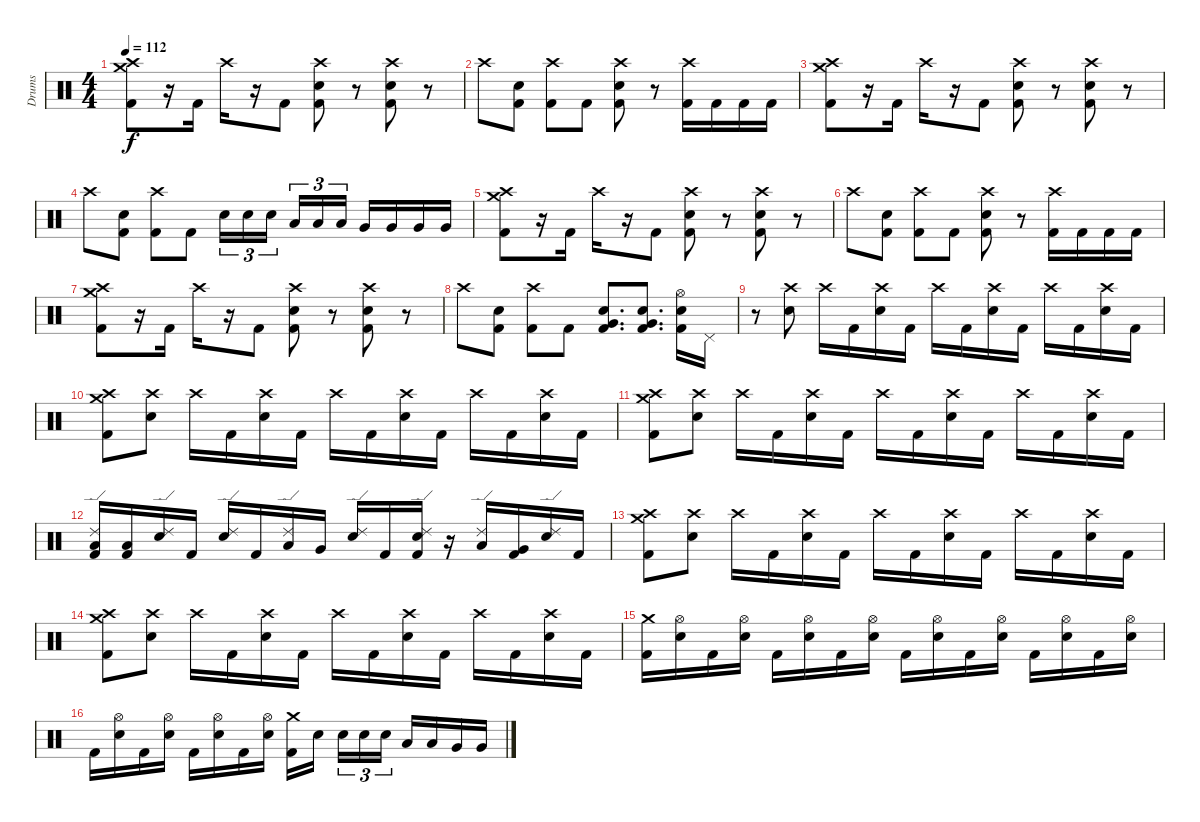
\track ("Drums " "Drums ") {instrument percussion}
\staff {score}
\articulation defaults
\ts (4 4)
\tempo 112
\clef neutral
\ks c
("Crash high (hit)" "Crash medium (hit)" "Kick (hit) 2").8{dy f} r.16 "Kick (hit) 2".16 "Crash high (hit)".16 r.16 "Kick (hit) 2".8 ("Crash high (hit)" "Electric Snare (hit)" "Kick (hit) 2").8 r.8 ("Crash high (hit)" "Electric Snare (hit)" "Kick (hit) 2").8 r.8 |
"Crash high (hit)".8 ("Electric Snare (hit)" "Kick (hit) 2").8 ("Crash high (hit)" "Kick (hit) 2").8 "Kick (hit) 2".8 ("Crash high (hit)" "Electric Snare (hit)" "Kick (hit) 2").8 r.8 ("Crash high (hit)" "Kick (hit) 2").16 "Kick (hit) 2".16 "Kick (hit) 2".16 "Kick (hit) 2".16 |
("Crash high (hit)" "Crash medium (hit)" "Kick (hit) 2").8 r.16 "Kick (hit) 2".16 "Crash high (hit)".16 r.16 "Kick (hit) 2".8 ("Crash high (hit)" "Electric Snare (hit)" "Kick (hit) 2").8 r.8 ("Crash high (hit)" "Electric Snare (hit)" "Kick (hit) 2").8 r.8 |
"Crash high (hit)".8 ("Electric Snare (hit)" "Kick (hit) 2").8 ("Crash high (hit)" "Kick (hit) 2").8 "Kick (hit) 2".8 "Electric Snare (hit)".16{tu (3 2)} "Electric Snare (hit)".16{tu (3 2)} "Electric Snare (hit)".16{tu (3 2) beam splitsecondary} "Low Tom (hit)".16{tu (3 2)} "Low Tom (hit)".16{tu (3 2)} "Low Tom (hit)".16{tu (3 2)} "Very Low Tom (hit)".16 "Very Low Tom (hit)".16 "Very Low Tom (hit)".16 "Very Low Tom (hit)".16 |
("Crash high (hit)" "Crash medium (hit)" "Kick (hit) 2").8 r.16 "Kick (hit) 2".16 "Crash high (hit)".16 r.16 "Kick (hit) 2".8 ("Crash high (hit)" "Electric Snare (hit)" "Kick (hit) 2").8 r.8 ("Crash high (hit)" "Electric Snare (hit)" "Kick (hit) 2").8 r.8 |
"Crash high (hit)".8 ("Electric Snare (hit)" "Kick (hit) 2").8 ("Crash high (hit)" "Kick (hit) 2").8 "Kick (hit) 2".8 ("Crash high (hit)" "Electric Snare (hit)" "Kick (hit) 2").8 r.8 ("Crash high (hit)" "Kick (hit) 2").16 "Kick (hit) 2".16 "Kick (hit) 2".16 "Kick (hit) 2".16 |
("Crash high (hit)" "Crash medium (hit)" "Kick (hit) 2").8 r.16 "Kick (hit) 2".16 "Crash high (hit)".16 r.16 "Kick (hit) 2".8 ("Crash high (hit)" "Electric Snare (hit)" "Kick (hit) 2").8 r.8 ("Crash high (hit)" "Electric Snare (hit)" "Kick (hit) 2").8 r.8 |
"Crash high (hit)".8 ("Electric Snare (hit)" "Kick (hit) 2").8 ("Crash high (hit)" "Kick (hit) 2").8 "Kick (hit) 2".8 ("Electric Snare (hit)" "Very Low Tom (hit)" "Kick (hit) 2").8{d} ("Electric Snare (hit)" "Very Low Tom (hit)" "Kick (hit) 2").8{d} ("Hi-Hat (open)" "Electric Snare (hit)" "Kick (hit) 2").16 "Pedal Hi-Hat (hit)".16 |
r.8 ("Crash high (hit)" "Electric Snare (hit)").8 "Crash high (hit)".16 "Kick (hit) 2".16 ("Crash high (hit)" "Electric Snare (hit)").16 "Kick (hit) 2".16 "Crash high (hit)".16 "Kick (hit) 2".16 ("Crash high (hit)" "Electric Snare (hit)").16 "Kick (hit) 2".16 "Crash high (hit)".16 "Kick (hit) 2".16 ("Crash high (hit)" "Electric Snare (hit)").16 "Kick (hit) 2".16 |
("Crash high (hit)" "Crash medium (hit)" "Kick (hit) 2").8 ("Crash high (hit)" "Electric Snare (hit)").8 "Crash high (hit)".16 "Kick (hit) 2".16 ("Crash high (hit)" "Electric Snare (hit)").16 "Kick (hit) 2".16 "Crash high (hit)".16 "Kick (hit) 2".16 ("Crash high (hit)" "Electric Snare (hit)").16 "Kick (hit) 2".16 "Crash high (hit)".16 "Kick (hit) 2".16 ("Crash high (hit)" "Electric Snare (hit)").16 "Kick (hit) 2".16 |
("Crash high (hit)" "Crash medium (hit)" "Kick (hit) 2").8 ("Crash high (hit)" "Electric Snare (hit)").8 "Crash high (hit)".16 "Kick (hit) 2".16 ("Crash high (hit)" "Electric Snare (hit)").16 "Kick (hit) 2".16 "Crash high (hit)".16 "Kick (hit) 2".16 ("Crash high (hit)" "Electric Snare (hit)").16 "Kick (hit) 2".16 "Crash high (hit)".16 "Kick (hit) 2".16 ("Crash high (hit)" "Electric Snare (hit)").16 "Kick (hit) 2".16 |
("Ride (edge) 2" "Low Tom (hit)" "Kick (hit) 2").16 ("Low Tom (hit)" "Kick (hit) 2").16 ("Ride (edge) 2" "Electric Snare (hit)").16 "Kick (hit) 2".16 ("Ride (edge) 2" "Electric Snare (hit)").16 "Kick (hit) 2".16 ("Ride (edge) 2" "Low Tom (hit)").16 "Very Low Tom (hit)".16 ("Ride (edge) 2" "Electric Snare (hit)").16 "Kick (hit) 2".16 ("Ride (edge) 2" "Electric Snare (hit)" "Kick (hit) 2").16 r.16 ("Ride (edge) 2" "Low Tom (hit)").16 ("Very Low Tom (hit)" "Kick (hit) 2").16 ("Ride (edge) 2" "Electric Snare (hit)").16 "Kick (hit) 2".16 |
("Crash high (hit)" "Crash medium (hit)" "Kick (hit) 2").8 ("Crash high (hit)" "Electric Snare (hit)").8 "Crash high (hit)".16 "Kick (hit) 2".16 ("Crash high (hit)" "Electric Snare (hit)").16 "Kick (hit) 2".16 "Crash high (hit)".16 "Kick (hit) 2".16 ("Crash high (hit)" "Electric Snare (hit)").16 "Kick (hit) 2".16 "Crash high (hit)".16 "Kick (hit) 2".16 ("Crash high (hit)" "Electric Snare (hit)").16 "Kick (hit) 2".16 |
("Crash high (hit)" "Crash medium (hit)" "Kick (hit) 2").8 ("Crash high (hit)" "Electric Snare (hit)").8 "Crash high (hit)".16 "Kick (hit) 2".16 ("Crash high (hit)" "Electric Snare (hit)").16 "Kick (hit) 2".16 "Crash high (hit)".16 "Kick (hit) 2".16 ("Crash high (hit)" "Electric Snare (hit)").16 "Kick (hit) 2".16 "Crash high (hit)".16 "Kick (hit) 2".16 ("Crash high (hit)" "Electric Snare (hit)").16 "Kick (hit) 2".16 |
("Crash medium (hit)" "Kick (hit) 2").16 ("Hi-Hat (open)" "Electric Snare (hit)").16 "Kick (hit) 2".16 ("Hi-Hat (open)" "Electric Snare (hit)").16 "Kick (hit) 2".16 ("Hi-Hat (open)" "Electric Snare (hit)").16 "Kick (hit) 2".16 ("Hi-Hat (open)" "Electric Snare (hit)").16 "Kick (hit) 2".16 ("Hi-Hat (open)" "Electric Snare (hit)").16 "Kick (hit) 2".16 ("Hi-Hat (open)" "Electric Snare (hit)").16 "Kick (hit) 2".16 ("Hi-Hat (open)" "Electric Snare (hit)").16 "Kick (hit) 2".16 ("Hi-Hat (open)" "Electric Snare (hit)").16 |
"Kick (hit) 2".16 ("Hi-Hat (open)" "Electric Snare (hit)").16 "Kick (hit) 2".16 ("Hi-Hat (open)" "Electric Snare (hit)").16 "Kick (hit) 2".16 ("Hi-Hat (open)" "Electric Snare (hit)").16 "Kick (hit) 2".16 ("Hi-Hat (open)" "Electric Snare (hit)").16 ("Crash medium (hit)" "Kick (hit) 2").16 "Electric Snare (hit)".16{beam splitsecondary} "Electric Snare (hit)".16{tu (3 2)} "Electric Snare (hit)".16{tu (3 2)} "Electric Snare (hit)".16{tu (3 2)} "Low Tom (hit)".16 "Low Tom (hit)".16 "Very Low Tom (hit)".16 "Very Low Tom (hit)".16
